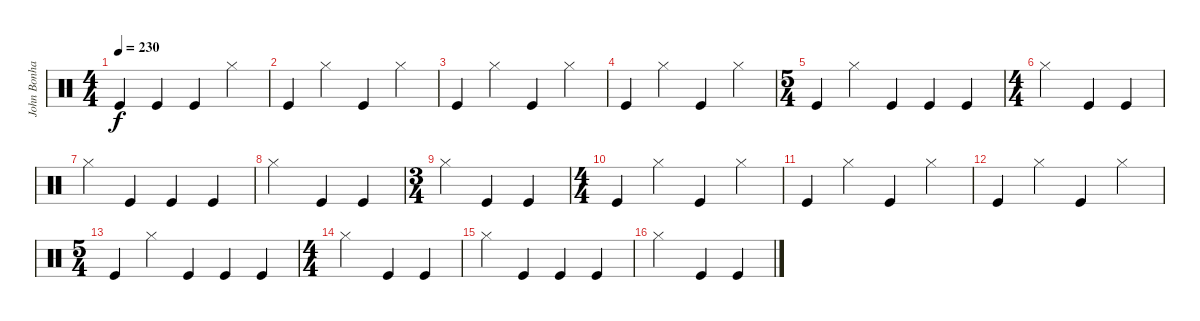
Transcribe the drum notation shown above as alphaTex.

\track ("John Bonham" "John Bonha") {instrument percussion}
\staff {score}
\articulation defaults
\ts (4 4)
\tempo 230
\clef neutral
\ks c "Kick (hit)".4{dy f} "Kick (hit)".4 "Kick (hit)".4 "Hi-Hat (closed)".4
|
"Kick (hit)".4 "Hi-Hat (closed)".4 "Kick (hit)".4 "Hi-Hat (closed)".4 |
"Kick (hit)".4 "Hi-Hat (closed)".4 "Kick (hit)".4 "Hi-Hat (closed)".4 |
"Kick (hit)".4 "Hi-Hat (closed)".4 "Kick (hit)".4 "Hi-Hat (closed)".4 |
\ts (5 4)
"Kick (hit)".4 "Hi-Hat (closed)".4 "Kick (hit)".4 "Kick (hit)".4 "Kick (hit)".4 |
\ts (4 4)
"Hi-Hat (closed)".2 "Kick (hit)".4 "Kick (hit)".4 |
"Hi-Hat (closed)".4 "Kick (hit)".4 "Kick (hit)".4 "Kick (hit)".4 |
"Hi-Hat (closed)".2 "Kick (hit)".4 "Kick (hit)".4 |
\ts (3 4)
"Hi-Hat (closed)".4 "Kick (hit)".4 "Kick (hit)".4 |
\ts (4 4)
"Kick (hit)".4 "Hi-Hat (closed)".4 "Kick (hit)".4 "Hi-Hat (closed)".4 |
"Kick (hit)".4 "Hi-Hat (closed)".4 "Kick (hit)".4 "Hi-Hat (closed)".4 |
"Kick (hit)".4 "Hi-Hat (closed)".4 "Kick (hit)".4 "Hi-Hat (closed)".4 |
\ts (5 4)
"Kick (hit)".4 "Hi-Hat (closed)".4 "Kick (hit)".4 "Kick (hit)".4 "Kick (hit)".4 |
\ts (4 4)
"Hi-Hat (closed)".2 "Kick (hit)".4 "Kick (hit)".4 |
"Hi-Hat (closed)".4 "Kick (hit)".4 "Kick (hit)".4 "Kick (hit)".4 |
"Hi-Hat (closed)".2 "Kick (hit)".4 "Kick (hit)".4
